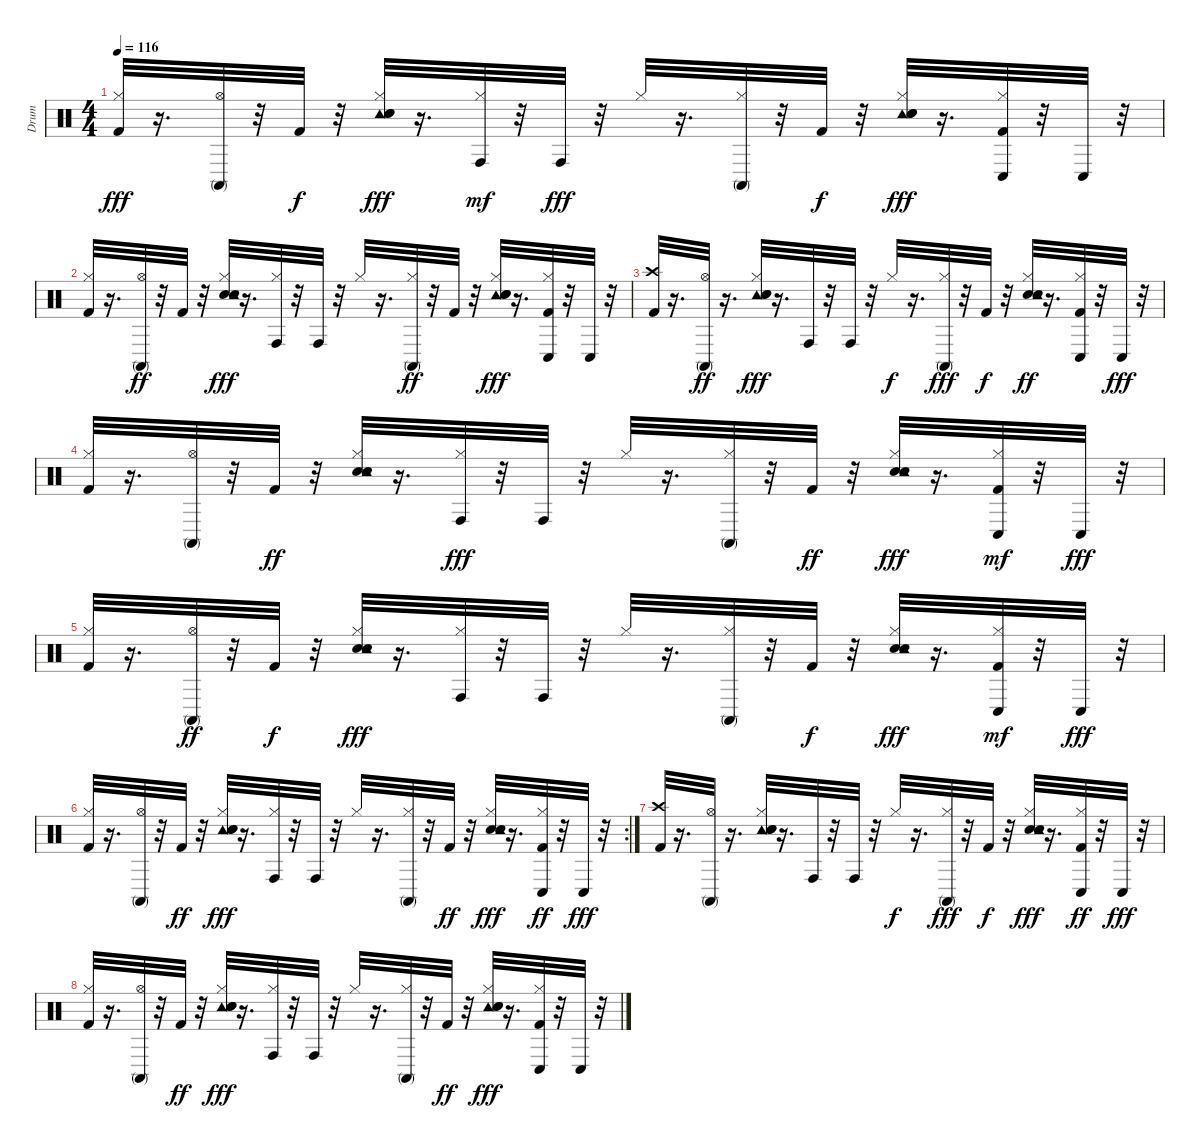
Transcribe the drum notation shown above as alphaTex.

\track ("Drum" "Drum") {instrument percussion}
\staff {score}
\articulation defaults
\ts (4 4)
\tempo 116
\clef neutral
\ks c
("Kick (hit) 2" "Hi-Hat (closed)").32{dy fff} r.16{d} ("Hi-Hat (open)" "Conga high (mute)").32 r.32 "Kick (hit) 2".32{dy f} r.32 ("Tambourine (hit)" "Electric Snare (hit)" "Hi-Hat (closed)" "Hand Clap (hit)").32{dy fff} r.16{d} ("Conga high (hit)" "Hi-Hat (closed)").32{dy mf} r.32 "Conga high (hit)".32{dy fff} r.32 "Hi-Hat (closed)".32 r.16{d} ("Conga high (mute)" "Hi-Hat (closed)").32 r.32 "Kick (hit) 2".32{dy f} r.32 ("Tambourine (hit)" "Hand Clap (hit)" "Electric Snare (hit)" "Hi-Hat (closed)").32{dy fff} r.16{d} ("Kick (hit) 2" "Hi-Hat (closed)" "Conga low (hit)").32 r.32 "Conga low (hit)".32 r.32 |
("Hi-Hat (closed)" "Kick (hit) 2").32 r.16{d} ("Conga high (mute)" "Hi-Hat (open)").32{dy ff} r.32 "Kick (hit) 2".32 r.32 ("Hand Clap (hit)" "Tambourine (hit)" "Hi-Hat (closed)" "Electric Snare (hit)").32{dy fff} r.16{d} ("Hi-Hat (closed)" "Conga high (hit)").32 r.32 "Conga high (hit)".32 r.32 "Hi-Hat (closed)".32 r.16{d} ("Conga high (mute)" "Hi-Hat (closed)").32{dy ff} r.32 "Kick (hit) 2".32 r.32 ("Tambourine (hit)" "Hi-Hat (closed)" "Electric Snare (hit)" "Hand Clap (hit)").32{dy fff} r.16{d} ("Kick (hit) 2" "Hi-Hat (closed)" "Conga low (hit)").32 r.32 "Conga low (hit)".32 r.32 |
("Kick (hit) 2" "Crash high (hit)").32 r.16{d} ("Conga high (mute)" "Hi-Hat (open)").32{dy ff} r.16{d} ("Tambourine (hit)" "Electric Snare (hit)" "Hand Clap (hit)" "Hi-Hat (closed)").32{dy fff} r.16{d} "Conga high (hit)".32 r.32 "Conga high (hit)".32 r.32 "Hi-Hat (closed)".32{dy f} r.16{d} ("Hi-Hat (closed)" "Conga high (mute)").32{dy fff} r.32 "Kick (hit) 2".32{dy f} r.32 ("Hand Clap (hit)" "Electric Snare (hit)" "Tambourine (hit)" "Hi-Hat (closed)").32{dy ff} r.16{d} ("Conga low (hit)" "Hi-Hat (closed)" "Kick (hit) 2").32 r.32 "Conga low (hit)".32{dy fff} r.32 |
("Hi-Hat (closed)" "Kick (hit) 2").32 r.16{d} ("Hi-Hat (open)" "Conga high (mute)").32 r.32 "Kick (hit) 2".32{dy ff} r.32 ("Electric Snare (hit)" "Hi-Hat (closed)" "Hand Clap (hit)" "Tambourine (hit)").32 r.16{d} ("Hi-Hat (closed)" "Conga high (hit)").32{dy fff} r.32 "Conga high (hit)".32 r.32 "Hi-Hat (closed)".32 r.16{d} ("Conga high (mute)" "Hi-Hat (closed)").32 r.32 "Kick (hit) 2".32{dy ff} r.32 ("Electric Snare (hit)" "Tambourine (hit)" "Hi-Hat (closed)" "Hand Clap (hit)").32{dy fff} r.16{d} ("Conga low (hit)" "Kick (hit) 2" "Hi-Hat (closed)").32{dy mf} r.32 "Conga low (hit)".32{dy fff} r.32 |
("Hi-Hat (closed)" "Kick (hit) 2").32 r.16{d} ("Conga high (mute)" "Hi-Hat (open)").32{dy ff} r.32 "Kick (hit) 2".32{dy f} r.32 ("Electric Snare (hit)" "Tambourine (hit)" "Hi-Hat (closed)" "Hand Clap (hit)").32{dy fff} r.16{d} ("Hi-Hat (closed)" "Conga high (hit)").32 r.32 "Conga high (hit)".32 r.32 "Hi-Hat (closed)".32 r.16{d} ("Conga high (mute)" "Hi-Hat (closed)").32 r.32 "Kick (hit) 2".32{dy f} r.32 ("Hand Clap (hit)" "Tambourine (hit)" "Hi-Hat (closed)" "Electric Snare (hit)").32{dy fff} r.16{d} ("Conga low (hit)" "Hi-Hat (closed)" "Kick (hit) 2").32{dy mf} r.32 "Conga low (hit)".32{dy fff} r.32 |
\rc 2
("Kick (hit) 2" "Hi-Hat (closed)").32 r.16{d} ("Hi-Hat (open)" "Conga high (mute)").32 r.32 "Kick (hit) 2".32{dy ff} r.32 ("Tambourine (hit)" "Hi-Hat (closed)" "Hand Clap (hit)" "Electric Snare (hit)").32{dy fff} r.16{d} ("Conga high (hit)" "Hi-Hat (closed)").32 r.32 "Conga high (hit)".32 r.32 "Hi-Hat (closed)".32 r.16{d} ("Hi-Hat (closed)" "Conga high (mute)").32 r.32 "Kick (hit) 2".32{dy ff} r.32 ("Electric Snare (hit)" "Hand Clap (hit)" "Tambourine (hit)" "Hi-Hat (closed)").32{dy fff} r.16{d} ("Hi-Hat (closed)" "Conga low (hit)" "Kick (hit) 2").32{dy ff} r.32 "Conga low (hit)".32{dy fff} r.32 |
("Crash high (hit)" "Kick (hit) 2").32 r.16{d} ("Hi-Hat (open)" "Conga high (mute)").32 r.16{d} ("Tambourine (hit)" "Electric Snare (hit)" "Hi-Hat (closed)" "Hand Clap (hit)").32 r.16{d} "Conga high (hit)".32 r.32 "Conga high (hit)".32 r.32 "Hi-Hat (closed)".32{dy f} r.16{d} ("Hi-Hat (closed)" "Conga high (mute)").32{dy fff} r.32 "Kick (hit) 2".32{dy f} r.32 ("Hand Clap (hit)" "Tambourine (hit)" "Hi-Hat (closed)" "Electric Snare (hit)").32{dy fff} r.16{d} ("Hi-Hat (closed)" "Conga low (hit)" "Kick (hit) 2").32{dy ff} r.32 "Conga low (hit)".32{dy fff} r.32 |
("Hi-Hat (closed)" "Kick (hit) 2").32 r.16{d} ("Hi-Hat (open)" "Conga high (mute)").32 r.32 "Kick (hit) 2".32{dy ff} r.32 ("Tambourine (hit)" "Hi-Hat (closed)" "Hand Clap (hit)" "Electric Snare (hit)").32{dy fff} r.16{d} ("Hi-Hat (closed)" "Conga high (hit)").32 r.32 "Conga high (hit)".32 r.32 "Hi-Hat (closed)".32 r.16{d} ("Hi-Hat (closed)" "Conga high (mute)").32 r.32 "Kick (hit) 2".32{dy ff} r.32 ("Tambourine (hit)" "Hi-Hat (closed)" "Electric Snare (hit)" "Hand Clap (hit)").32{dy fff} r.16{d} ("Hi-Hat (closed)" "Kick (hit) 2" "Conga low (hit)").32 r.32 "Conga low (hit)".32 r.32
